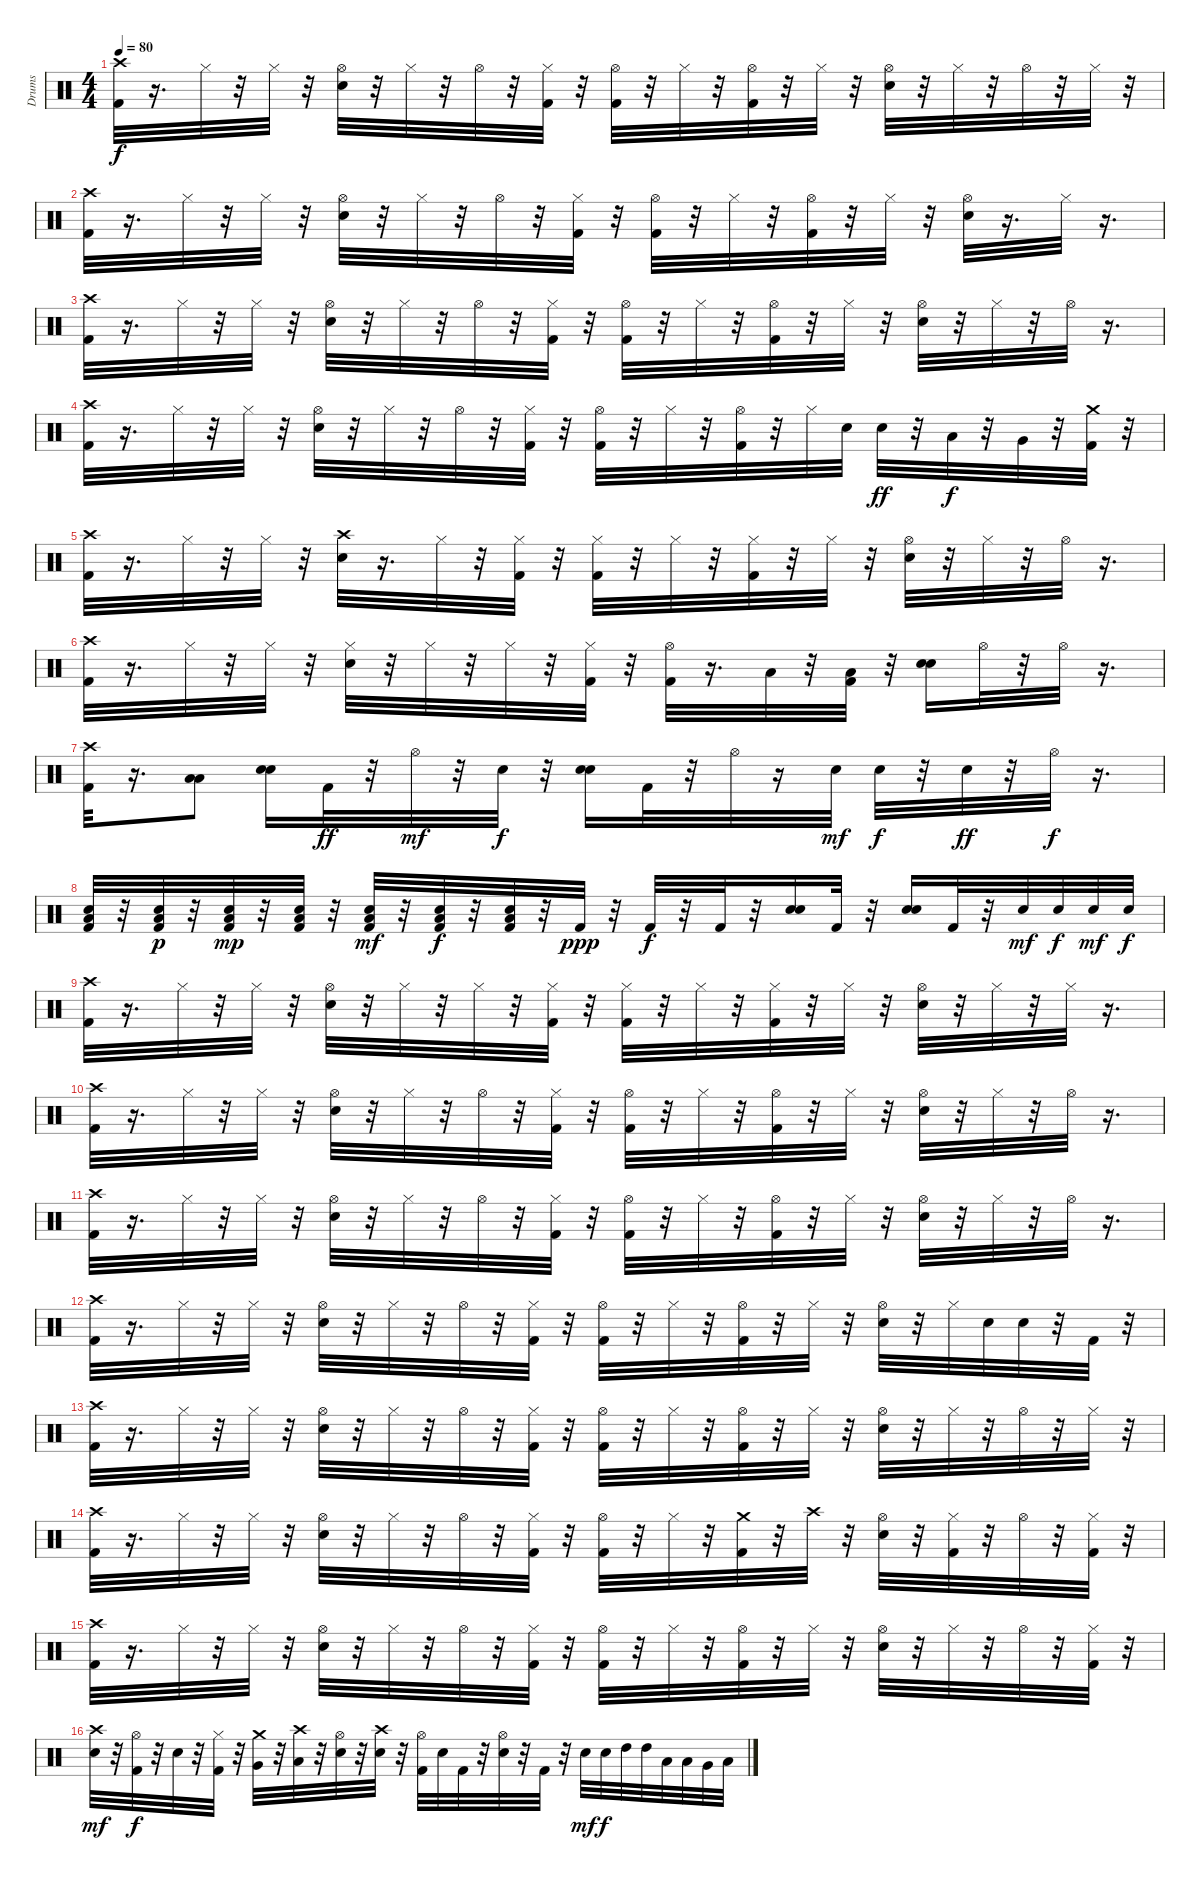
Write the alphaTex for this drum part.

\track ("Drums" "Drums") {instrument percussion}
\staff {score}
\articulation defaults
\ts (4 4)
\tempo 80
\clef neutral
\ks c
("Kick (hit) 2" "Crash high (hit)").32{dy f} r.16{d} "Hi-Hat (closed)".32 r.32 "Hi-Hat (closed)".32 r.32 ("Snare (hit) 2" "Hi-Hat (open)").32 r.32 "Hi-Hat (closed)".32 r.32 "Hi-Hat (open)".32 r.32 ("Kick (hit) 2" "Hi-Hat (closed)").32 r.32 ("Kick (hit) 2" "Hi-Hat (open)").32 r.32 "Hi-Hat (closed)".32 r.32 ("Hi-Hat (open)" "Kick (hit) 2").32 r.32 "Hi-Hat (closed)".32 r.32 ("Snare (hit) 2" "Hi-Hat (open)").32 r.32 "Hi-Hat (closed)".32 r.32 "Hi-Hat (open)".32 r.32 "Hi-Hat (closed)".32 r.32 |
("Kick (hit) 2" "Crash high (hit)").32 r.16{d} "Hi-Hat (closed)".32 r.32 "Hi-Hat (closed)".32 r.32 ("Snare (hit) 2" "Hi-Hat (open)").32 r.32 "Hi-Hat (closed)".32 r.32 "Hi-Hat (open)".32 r.32 ("Kick (hit) 2" "Hi-Hat (closed)").32 r.32 ("Kick (hit) 2" "Hi-Hat (open)").32 r.32 "Hi-Hat (closed)".32 r.32 ("Hi-Hat (open)" "Kick (hit) 2").32 r.32 "Hi-Hat (closed)".32 r.32 ("Snare (hit) 2" "Hi-Hat (open)").32 r.16{d} "Hi-Hat (closed)".32 r.16{d} |
("Kick (hit) 2" "Crash high (hit)").32 r.16{d} "Hi-Hat (closed)".32 r.32 "Hi-Hat (closed)".32 r.32 ("Snare (hit) 2" "Hi-Hat (open)").32 r.32 "Hi-Hat (closed)".32 r.32 "Hi-Hat (open)".32 r.32 ("Kick (hit) 2" "Hi-Hat (closed)").32 r.32 ("Kick (hit) 2" "Hi-Hat (open)").32 r.32 "Hi-Hat (closed)".32 r.32 ("Hi-Hat (open)" "Kick (hit) 2").32 r.32 "Hi-Hat (closed)".32 r.32 ("Snare (hit) 2" "Hi-Hat (open)").32 r.32 "Hi-Hat (closed)".32 r.32 "Hi-Hat (open)".32 r.16{d} |
("Kick (hit) 2" "Crash high (hit)").32 r.16{d} "Hi-Hat (closed)".32 r.32 "Hi-Hat (closed)".32 r.32 ("Snare (hit) 2" "Hi-Hat (open)").32 r.32 "Hi-Hat (closed)".32 r.32 "Hi-Hat (open)".32 r.32 ("Kick (hit) 2" "Hi-Hat (closed)").32 r.32 ("Kick (hit) 2" "Hi-Hat (open)").32 r.32 "Hi-Hat (closed)".32 r.32 ("Hi-Hat (open)" "Kick (hit) 2").32 r.32 "Hi-Hat (closed)".32 "Electric Snare (hit)".32 "Snare (hit) 2".32{dy ff} r.32 "Low Tom (hit)".32{dy f} r.32 "Very Low Tom (hit)".32 r.32 ("Crash medium (hit)" "Kick (hit) 2").32 r.32 |
("Kick (hit) 2" "Crash high (hit)").32 r.16{d} "Hi-Hat (closed)".32 r.32 "Hi-Hat (closed)".32 r.32 ("Snare (hit) 2" "Crash high (hit)").32 r.16{d} "Hi-Hat (closed)".32 r.32 ("Kick (hit) 2" "Hi-Hat (closed)").32 r.32 ("Kick (hit) 2" "Hi-Hat (closed)").32 r.32 "Hi-Hat (closed)".32 r.32 ("Hi-Hat (closed)" "Kick (hit) 2").32 r.32 "Hi-Hat (closed)".32 r.32 ("Snare (hit) 2" "Hi-Hat (open)").32 r.32 "Hi-Hat (closed)".32 r.32 "Hi-Hat (open)".32 r.16{d} |
("Kick (hit) 2" "Crash high (hit)").32 r.16{d} "Hi-Hat (closed)".32 r.32 "Hi-Hat (closed)".32 r.32 ("Snare (hit) 2" "Hi-Hat (closed)").32 r.32 "Hi-Hat (closed)".32 r.32 "Hi-Hat (closed)".32 r.32 ("Kick (hit) 2" "Hi-Hat (closed)").32 r.32 ("Kick (hit) 2" "Hi-Hat (open)").32 r.16{d} "Low Tom (hit)".32 r.32 ("Kick (hit) 2" "Low Tom (hit)").32 r.32 ("Snare (hit) 2" "Snare (hit) 2").16 "Hi-Hat (open)".32 r.32 "Hi-Hat (open)".32 r.16{d} |
("Crash high (hit)" "Kick (hit) 2").32 r.16{d} ("Low Tom (hit)" "Low Tom (hit)").8 ("Snare (hit) 2" "Snare (hit) 2").16 "Kick (hit) 2".32{dy ff} r.32 "Hi-Hat (open)".32{dy mf} r.32 "Snare (hit) 2".32{dy f} r.32 ("Snare (hit) 2" "Snare (hit) 2").16 "Kick (hit) 2".32 r.32 "Hi-Hat (open)".32 r.16 "Snare (hit) 2".32{dy mf} "Snare (hit) 2".32{dy f} r.32 "Snare (hit) 2".32{dy ff} r.32 "Hi-Hat (open)".32{dy f} r.16{d} |
("Kick (hit) 2" "Low Floor Tom (hit)" "Snare (hit) 2").32 r.32 ("Kick (hit) 2" "Low Floor Tom (hit)" "Snare (hit) 2").32{dy p} r.32 ("Kick (hit) 2" "Low Floor Tom (hit)" "Snare (hit) 2").32{dy mp} r.32 ("Kick (hit) 2" "Low Floor Tom (hit)" "Snare (hit) 2").32 r.32 ("Kick (hit) 2" "Low Floor Tom (hit)" "Snare (hit) 2").32{dy mf} r.32 ("Kick (hit) 2" "Low Floor Tom (hit)" "Snare (hit) 2").32{dy f} r.32 ("Kick (hit) 2" "Low Floor Tom (hit)" "Snare (hit) 2").32 r.32 "Kick (hit) 2".32{dy ppp} r.32 "Kick (hit) 2".32{dy f} r.32 "Kick (hit) 2".32 r.32 ("Snare (hit) 2" "Snare (hit) 2").16 "Kick (hit) 2".32 r.32 ("Snare (hit) 2" "Snare (hit) 2").16 "Kick (hit) 2".32 r.32 "Snare (hit) 2".32{dy mf} "Snare (hit) 2".32{dy f} "Snare (hit) 2".32{dy mf} "Snare (hit) 2".32{dy f} |
("Kick (hit) 2" "Crash high (hit)").32 r.16{d} "Hi-Hat (closed)".32 r.32 "Hi-Hat (closed)".32 r.32 ("Snare (hit) 2" "Hi-Hat (open)").32 r.32 "Hi-Hat (closed)".32 r.32 "Hi-Hat (closed)".32 r.32 ("Kick (hit) 2" "Hi-Hat (closed)").32 r.32 ("Kick (hit) 2" "Hi-Hat (closed)").32 r.32 "Hi-Hat (closed)".32 r.32 ("Hi-Hat (closed)" "Kick (hit) 2").32 r.32 "Hi-Hat (closed)".32 r.32 ("Snare (hit) 2" "Hi-Hat (open)").32 r.32 "Hi-Hat (closed)".32 r.32 "Hi-Hat (closed)".32 r.16{d} |
("Kick (hit) 2" "Crash high (hit)").32 r.16{d} "Hi-Hat (closed)".32 r.32 "Hi-Hat (closed)".32 r.32 ("Snare (hit) 2" "Hi-Hat (open)").32 r.32 "Hi-Hat (closed)".32 r.32 "Hi-Hat (open)".32 r.32 ("Kick (hit) 2" "Hi-Hat (closed)").32 r.32 ("Kick (hit) 2" "Hi-Hat (open)").32 r.32 "Hi-Hat (closed)".32 r.32 ("Hi-Hat (open)" "Kick (hit) 2").32 r.32 "Hi-Hat (closed)".32 r.32 ("Snare (hit) 2" "Hi-Hat (open)").32 r.32 "Hi-Hat (closed)".32 r.32 "Hi-Hat (open)".32 r.16{d} |
("Kick (hit) 2" "Crash high (hit)").32 r.16{d} "Hi-Hat (closed)".32 r.32 "Hi-Hat (closed)".32 r.32 ("Snare (hit) 2" "Hi-Hat (open)").32 r.32 "Hi-Hat (closed)".32 r.32 "Hi-Hat (open)".32 r.32 ("Kick (hit) 2" "Hi-Hat (closed)").32 r.32 ("Kick (hit) 2" "Hi-Hat (open)").32 r.32 "Hi-Hat (closed)".32 r.32 ("Hi-Hat (open)" "Kick (hit) 2").32 r.32 "Hi-Hat (closed)".32 r.32 ("Snare (hit) 2" "Hi-Hat (open)").32 r.32 "Hi-Hat (closed)".32 r.32 "Hi-Hat (open)".32 r.16{d} |
("Kick (hit) 2" "Crash high (hit)").32 r.16{d} "Hi-Hat (closed)".32 r.32 "Hi-Hat (closed)".32 r.32 ("Snare (hit) 2" "Hi-Hat (open)").32 r.32 "Hi-Hat (closed)".32 r.32 "Hi-Hat (open)".32 r.32 ("Kick (hit) 2" "Hi-Hat (closed)").32 r.32 ("Kick (hit) 2" "Hi-Hat (open)").32 r.32 "Hi-Hat (closed)".32 r.32 ("Hi-Hat (open)" "Kick (hit) 2").32 r.32 "Hi-Hat (closed)".32 r.32 ("Snare (hit) 2" "Hi-Hat (open)").32 r.32 "Hi-Hat (closed)".32 "Snare (hit) 2".32 "Snare (hit) 2".32 r.32 "Kick (hit) 2".32 r.32 |
("Kick (hit) 2" "Crash high (hit)").32 r.16{d} "Hi-Hat (closed)".32 r.32 "Hi-Hat (closed)".32 r.32 ("Snare (hit) 2" "Hi-Hat (open)").32 r.32 "Hi-Hat (closed)".32 r.32 "Hi-Hat (open)".32 r.32 ("Kick (hit) 2" "Hi-Hat (closed)").32 r.32 ("Kick (hit) 2" "Hi-Hat (open)").32 r.32 "Hi-Hat (closed)".32 r.32 ("Hi-Hat (open)" "Kick (hit) 2").32 r.32 "Hi-Hat (closed)".32 r.32 ("Snare (hit) 2" "Hi-Hat (open)").32 r.32 "Hi-Hat (closed)".32 r.32 "Hi-Hat (open)".32 r.32 "Hi-Hat (closed)".32 r.32 |
("Kick (hit) 2" "Crash high (hit)").32 r.16{d} "Hi-Hat (closed)".32 r.32 "Hi-Hat (closed)".32 r.32 ("Snare (hit) 2" "Hi-Hat (open)").32 r.32 "Hi-Hat (closed)".32 r.32 "Hi-Hat (open)".32 r.32 ("Kick (hit) 2" "Hi-Hat (closed)").32 r.32 ("Kick (hit) 2" "Hi-Hat (open)").32 r.32 "Hi-Hat (closed)".32 r.32 ("Crash medium (hit)" "Kick (hit) 2").32 r.32 "Crash high (hit)".32 r.32 ("Snare (hit) 2" "Hi-Hat (open)").32 r.32 ("Kick (hit) 2" "Hi-Hat (closed)").32 r.32 "Hi-Hat (open)".32 r.32 ("Kick (hit) 2" "Hi-Hat (closed)").32 r.32 |
("Kick (hit) 2" "Crash high (hit)").32 r.16{d} "Hi-Hat (closed)".32 r.32 "Hi-Hat (closed)".32 r.32 ("Snare (hit) 2" "Hi-Hat (open)").32 r.32 "Hi-Hat (closed)".32 r.32 "Hi-Hat (open)".32 r.32 ("Kick (hit) 2" "Hi-Hat (closed)").32 r.32 ("Kick (hit) 2" "Hi-Hat (open)").32 r.32 "Hi-Hat (closed)".32 r.32 ("Hi-Hat (open)" "Kick (hit) 2").32 r.32 "Hi-Hat (closed)".32 r.32 ("Snare (hit) 2" "Hi-Hat (open)").32 r.32 "Hi-Hat (closed)".32 r.32 "Hi-Hat (open)".32 r.32 ("Kick (hit) 2" "Hi-Hat (closed)").32 r.32 |
("Crash high (hit)" "Snare (hit) 2").32{dy mf} r.32 ("Kick (hit) 2" "Hi-Hat (open)").32{dy f} r.32 "Snare (hit) 2".32 r.32 ("Hi-Hat (closed)" "Kick (hit) 2").32 r.32 ("Crash medium (hit)" "Very Low Tom (hit)").32 r.32 ("Crash high (hit)" "Low Floor Tom (hit)").32 r.32 ("Hi-Hat (open)" "Snare (hit) 2").32 r.32 ("Crash high (hit)" "Snare (hit) 2").32 r.32 ("Hi-Hat (open)" "Kick (hit) 2").32 "Snare (hit) 2".32 "Kick (hit) 2".32 r.32 ("Hi-Hat (open)" "Snare (hit) 2").32 r.32 "Kick (hit) 2".32 r.32 "Snare (hit) 2".32{dy mf} "Snare (hit) 2".32{dy f} "High Tom (hit)".32 "High Tom (hit)".32 "Low Tom (hit)".32 "Low Tom (hit)".32 "Very Low Tom (hit)".32 "Low Floor Tom (hit)".32
